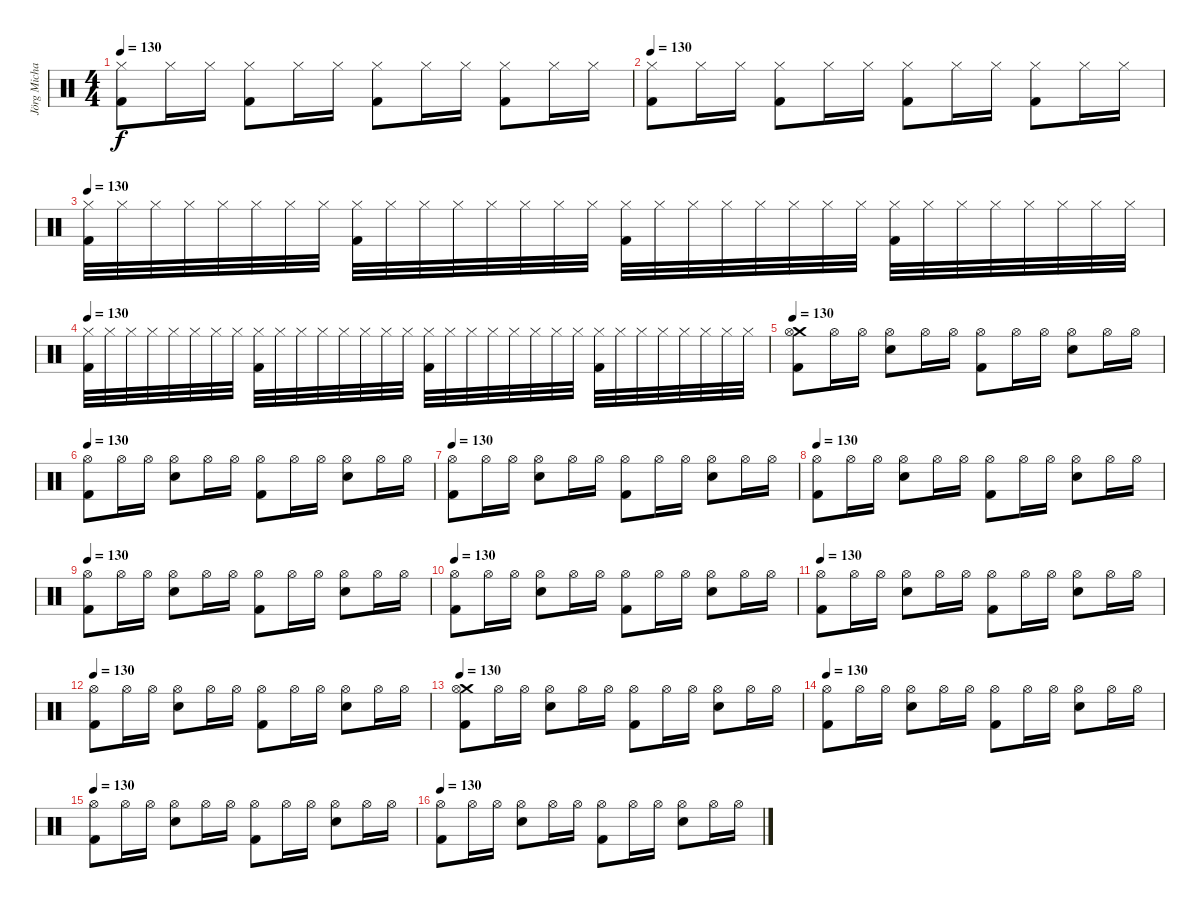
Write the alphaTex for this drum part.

\track ("Jörg Michael (Drums)" "Jörg Micha") {instrument percussion}
\staff {score}
\articulation defaults
\ts (4 4)
\tempo 130
\clef neutral
\ks c
("Hi-Hat (closed)" "Kick (hit) 2").8{dy f} "Hi-Hat (closed)".16 "Hi-Hat (closed)".16 ("Hi-Hat (closed)" "Kick (hit) 2").8 "Hi-Hat (closed)".16 "Hi-Hat (closed)".16 ("Hi-Hat (closed)" "Kick (hit) 2").8 "Hi-Hat (closed)".16 "Hi-Hat (closed)".16 ("Hi-Hat (closed)" "Kick (hit) 2").8 "Hi-Hat (closed)".16 "Hi-Hat (closed)".16 |
\tempo 130
("Hi-Hat (closed)" "Kick (hit) 2").8 "Hi-Hat (closed)".16 "Hi-Hat (closed)".16 ("Hi-Hat (closed)" "Kick (hit) 2").8 "Hi-Hat (closed)".16 "Hi-Hat (closed)".16 ("Hi-Hat (closed)" "Kick (hit) 2").8 "Hi-Hat (closed)".16 "Hi-Hat (closed)".16 ("Hi-Hat (closed)" "Kick (hit) 2").8 "Hi-Hat (closed)".16 "Hi-Hat (closed)".16 |
\tempo 130
("Hi-Hat (closed)" "Kick (hit) 2").32 "Hi-Hat (closed)".32 "Hi-Hat (closed)".32 "Hi-Hat (closed)".32 "Hi-Hat (closed)".32 "Hi-Hat (closed)".32 "Hi-Hat (closed)".32 "Hi-Hat (closed)".32 ("Hi-Hat (closed)" "Kick (hit) 2").32 "Hi-Hat (closed)".32 "Hi-Hat (closed)".32 "Hi-Hat (closed)".32 "Hi-Hat (closed)".32 "Hi-Hat (closed)".32 "Hi-Hat (closed)".32 "Hi-Hat (closed)".32 ("Hi-Hat (closed)" "Kick (hit) 2").32 "Hi-Hat (closed)".32 "Hi-Hat (closed)".32 "Hi-Hat (closed)".32 "Hi-Hat (closed)".32 "Hi-Hat (closed)".32 "Hi-Hat (closed)".32 "Hi-Hat (closed)".32 ("Hi-Hat (closed)" "Kick (hit) 2").32 "Hi-Hat (closed)".32 "Hi-Hat (closed)".32 "Hi-Hat (closed)".32 "Hi-Hat (closed)".32 "Hi-Hat (closed)".32 "Hi-Hat (closed)".32 "Hi-Hat (closed)".32 |
\tempo 130
("Hi-Hat (closed)" "Kick (hit) 2").32 "Hi-Hat (closed)".32 "Hi-Hat (closed)".32 "Hi-Hat (closed)".32 "Hi-Hat (closed)".32 "Hi-Hat (closed)".32 "Hi-Hat (closed)".32 "Hi-Hat (closed)".32 ("Hi-Hat (closed)" "Kick (hit) 2").32 "Hi-Hat (closed)".32 "Hi-Hat (closed)".32 "Hi-Hat (closed)".32 "Hi-Hat (closed)".32 "Hi-Hat (closed)".32 "Hi-Hat (closed)".32 "Hi-Hat (closed)".32 ("Hi-Hat (closed)" "Kick (hit) 2").32 "Hi-Hat (closed)".32 "Hi-Hat (closed)".32 "Hi-Hat (closed)".32 "Hi-Hat (closed)".32 "Hi-Hat (closed)".32 "Hi-Hat (closed)".32 "Hi-Hat (closed)".32 ("Hi-Hat (closed)" "Kick (hit) 2").32 "Hi-Hat (closed)".32 "Hi-Hat (closed)".32 "Hi-Hat (closed)".32 "Hi-Hat (closed)".32 "Hi-Hat (closed)".32 "Hi-Hat (closed)".32 "Hi-Hat (closed)".32 |
\tempo 130
("Crash medium (hit)" "Hi-Hat (open)" "Kick (hit) 2").8 "Hi-Hat (open)".16 "Hi-Hat (open)".16 ("Hi-Hat (open)" "Electric Snare (hit)").8 "Hi-Hat (open)".16 "Hi-Hat (open)".16 ("Hi-Hat (open)" "Kick (hit) 2").8 "Hi-Hat (open)".16 "Hi-Hat (open)".16 ("Hi-Hat (open)" "Electric Snare (hit)").8 "Hi-Hat (open)".16 "Hi-Hat (open)".16 |
\tempo 130
("Hi-Hat (open)" "Kick (hit) 2").8 "Hi-Hat (open)".16 "Hi-Hat (open)".16 ("Hi-Hat (open)" "Electric Snare (hit)").8 "Hi-Hat (open)".16 "Hi-Hat (open)".16 ("Hi-Hat (open)" "Kick (hit) 2").8 "Hi-Hat (open)".16 "Hi-Hat (open)".16 ("Hi-Hat (open)" "Electric Snare (hit)").8 "Hi-Hat (open)".16 "Hi-Hat (open)".16 |
\tempo 130
("Hi-Hat (open)" "Kick (hit) 2").8 "Hi-Hat (open)".16 "Hi-Hat (open)".16 ("Hi-Hat (open)" "Electric Snare (hit)").8 "Hi-Hat (open)".16 "Hi-Hat (open)".16 ("Hi-Hat (open)" "Kick (hit) 2").8 "Hi-Hat (open)".16 "Hi-Hat (open)".16 ("Hi-Hat (open)" "Electric Snare (hit)").8 "Hi-Hat (open)".16 "Hi-Hat (open)".16 |
\tempo 130
("Hi-Hat (open)" "Kick (hit) 2").8 "Hi-Hat (open)".16 "Hi-Hat (open)".16 ("Hi-Hat (open)" "Electric Snare (hit)").8 "Hi-Hat (open)".16 "Hi-Hat (open)".16 ("Hi-Hat (open)" "Kick (hit) 2").8 "Hi-Hat (open)".16 "Hi-Hat (open)".16 ("Hi-Hat (open)" "Electric Snare (hit)").8 "Hi-Hat (open)".16 "Hi-Hat (open)".16 |
\tempo 130
("Hi-Hat (open)" "Kick (hit) 2").8 "Hi-Hat (open)".16 "Hi-Hat (open)".16 ("Hi-Hat (open)" "Electric Snare (hit)").8 "Hi-Hat (open)".16 "Hi-Hat (open)".16 ("Hi-Hat (open)" "Kick (hit) 2").8 "Hi-Hat (open)".16 "Hi-Hat (open)".16 ("Hi-Hat (open)" "Electric Snare (hit)").8 "Hi-Hat (open)".16 "Hi-Hat (open)".16 |
\tempo 130
("Hi-Hat (open)" "Kick (hit) 2").8 "Hi-Hat (open)".16 "Hi-Hat (open)".16 ("Hi-Hat (open)" "Electric Snare (hit)").8 "Hi-Hat (open)".16 "Hi-Hat (open)".16 ("Hi-Hat (open)" "Kick (hit) 2").8 "Hi-Hat (open)".16 "Hi-Hat (open)".16 ("Hi-Hat (open)" "Electric Snare (hit)").8 "Hi-Hat (open)".16 "Hi-Hat (open)".16 |
\tempo 130
("Hi-Hat (open)" "Kick (hit) 2").8 "Hi-Hat (open)".16 "Hi-Hat (open)".16 ("Hi-Hat (open)" "Electric Snare (hit)").8 "Hi-Hat (open)".16 "Hi-Hat (open)".16 ("Hi-Hat (open)" "Kick (hit) 2").8 "Hi-Hat (open)".16 "Hi-Hat (open)".16 ("Hi-Hat (open)" "Electric Snare (hit)").8 "Hi-Hat (open)".16 "Hi-Hat (open)".16 |
\tempo 130
("Hi-Hat (open)" "Kick (hit) 2").8 "Hi-Hat (open)".16 "Hi-Hat (open)".16 ("Hi-Hat (open)" "Electric Snare (hit)").8 "Hi-Hat (open)".16 "Hi-Hat (open)".16 ("Hi-Hat (open)" "Kick (hit) 2").8 "Hi-Hat (open)".16 "Hi-Hat (open)".16 ("Hi-Hat (open)" "Electric Snare (hit)").8 "Hi-Hat (open)".16 "Hi-Hat (open)".16 |
\tempo 130
("Crash medium (hit)" "Hi-Hat (open)" "Kick (hit) 2").8 "Hi-Hat (open)".16 "Hi-Hat (open)".16 ("Hi-Hat (open)" "Electric Snare (hit)").8 "Hi-Hat (open)".16 "Hi-Hat (open)".16 ("Hi-Hat (open)" "Kick (hit) 2").8 "Hi-Hat (open)".16 "Hi-Hat (open)".16 ("Hi-Hat (open)" "Electric Snare (hit)").8 "Hi-Hat (open)".16 "Hi-Hat (open)".16 |
\tempo 130
("Hi-Hat (open)" "Kick (hit) 2").8 "Hi-Hat (open)".16 "Hi-Hat (open)".16 ("Hi-Hat (open)" "Electric Snare (hit)").8 "Hi-Hat (open)".16 "Hi-Hat (open)".16 ("Hi-Hat (open)" "Kick (hit) 2").8 "Hi-Hat (open)".16 "Hi-Hat (open)".16 ("Hi-Hat (open)" "Electric Snare (hit)").8 "Hi-Hat (open)".16 "Hi-Hat (open)".16 |
\tempo 130
("Hi-Hat (open)" "Kick (hit) 2").8 "Hi-Hat (open)".16 "Hi-Hat (open)".16 ("Hi-Hat (open)" "Electric Snare (hit)").8 "Hi-Hat (open)".16 "Hi-Hat (open)".16 ("Hi-Hat (open)" "Kick (hit) 2").8 "Hi-Hat (open)".16 "Hi-Hat (open)".16 ("Hi-Hat (open)" "Electric Snare (hit)").8 "Hi-Hat (open)".16 "Hi-Hat (open)".16 |
\tempo 130
("Hi-Hat (open)" "Kick (hit) 2").8 "Hi-Hat (open)".16 "Hi-Hat (open)".16 ("Hi-Hat (open)" "Electric Snare (hit)").8 "Hi-Hat (open)".16 "Hi-Hat (open)".16 ("Hi-Hat (open)" "Kick (hit) 2").8 "Hi-Hat (open)".16 "Hi-Hat (open)".16 ("Hi-Hat (open)" "Electric Snare (hit)").8 "Hi-Hat (open)".16 "Hi-Hat (open)".16
